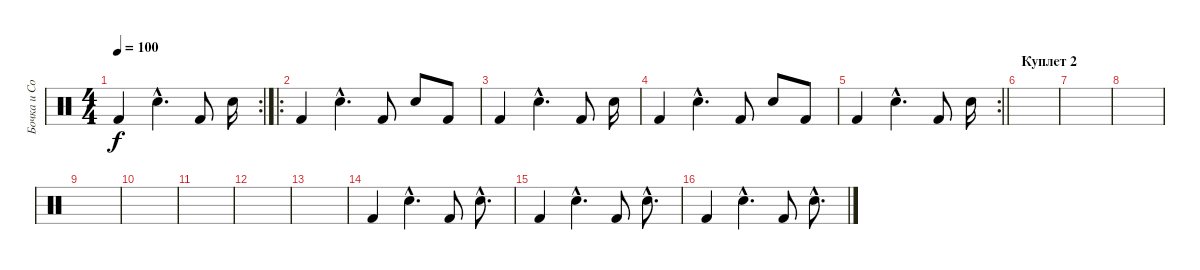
\track ("Бочка и Сольник" "Бочка и Со") {instrument percussion}
\staff {score}
\articulation defaults
\rc 2
\ts (4 4)
\tempo 100
\clef neutral
\ks c "Kick (hit) 2".4{dy f} "Electric Snare (hit)"{hac}.4{d} "Kick (hit) 2".8 "Electric Snare (hit)".16
|
\ro "Kick (hit) 2".4 "Electric Snare (hit)"{hac}.4{d} "Kick (hit) 2".8 "Electric Snare (hit)".8 "Kick (hit) 2".8
|
"Kick (hit) 2".4 "Electric Snare (hit)"{hac}.4{d} "Kick (hit) 2".8 "Electric Snare (hit)".16 |
"Kick (hit) 2".4 "Electric Snare (hit)"{hac}.4{d} "Kick (hit) 2".8 "Electric Snare (hit)".8 "Kick (hit) 2".8 |
\rc 2
\barLineRight lightlight "Kick (hit) 2".4 "Electric Snare (hit)"{hac}.4{d} "Kick (hit) 2".8 "Electric Snare (hit)".16
|
\section ("" "Куплет 2")
|
|
|
|
|
|
|
|
"Kick (hit) 2".4 "Snare (hit) 2"{hac}.4{d} "Kick (hit) 2".8 "Snare (hit) 2"{hac}.8{d} |
"Kick (hit) 2".4 "Snare (hit) 2"{hac}.4{d} "Kick (hit) 2".8 "Snare (hit) 2"{hac}.8{d} |
"Kick (hit) 2".4 "Snare (hit) 2"{hac}.4{d} "Kick (hit) 2".8 "Snare (hit) 2"{hac}.8{d}
